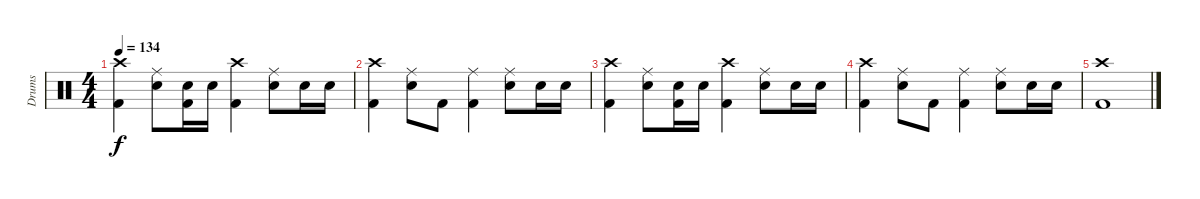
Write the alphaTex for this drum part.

\track ("Drums" "Drums") {instrument percussion}
\staff {score}
\articulation defaults
\ts (4 4)
\tempo 134
\clef neutral
\ks c
("Crash high (hit)" "Kick (hit) 2").4{dy f} ("Ride (middle)" "Electric Snare (hit)").8 ("Electric Snare (hit)" "Kick (hit) 2").16 "Electric Snare (hit)".16 ("Crash high (hit)" "Kick (hit) 2").4 ("Ride (middle)" "Electric Snare (hit)").8 "Electric Snare (hit)".16 "Electric Snare (hit)".16 |
("Crash high (hit)" "Kick (hit) 2").4 ("Ride (middle)" "Electric Snare (hit)").8 "Kick (hit) 2".8 ("Ride (middle)" "Kick (hit) 2").4 ("Ride (middle)" "Electric Snare (hit)").8 "Electric Snare (hit)".16 "Electric Snare (hit)".16 |
("Crash high (hit)" "Kick (hit) 2").4 ("Ride (middle)" "Electric Snare (hit)").8 ("Electric Snare (hit)" "Kick (hit) 2").16 "Electric Snare (hit)".16 ("Crash high (hit)" "Kick (hit) 2").4 ("Ride (middle)" "Electric Snare (hit)").8 "Electric Snare (hit)".16 "Electric Snare (hit)".16 |
("Crash high (hit)" "Kick (hit) 2").4 ("Ride (middle)" "Electric Snare (hit)").8 "Kick (hit) 2".8 ("Ride (middle)" "Kick (hit) 2").4 ("Ride (middle)" "Electric Snare (hit)").8 "Electric Snare (hit)".16 "Electric Snare (hit)".16 |
("Crash high (hit)" "Kick (hit) 2").1
